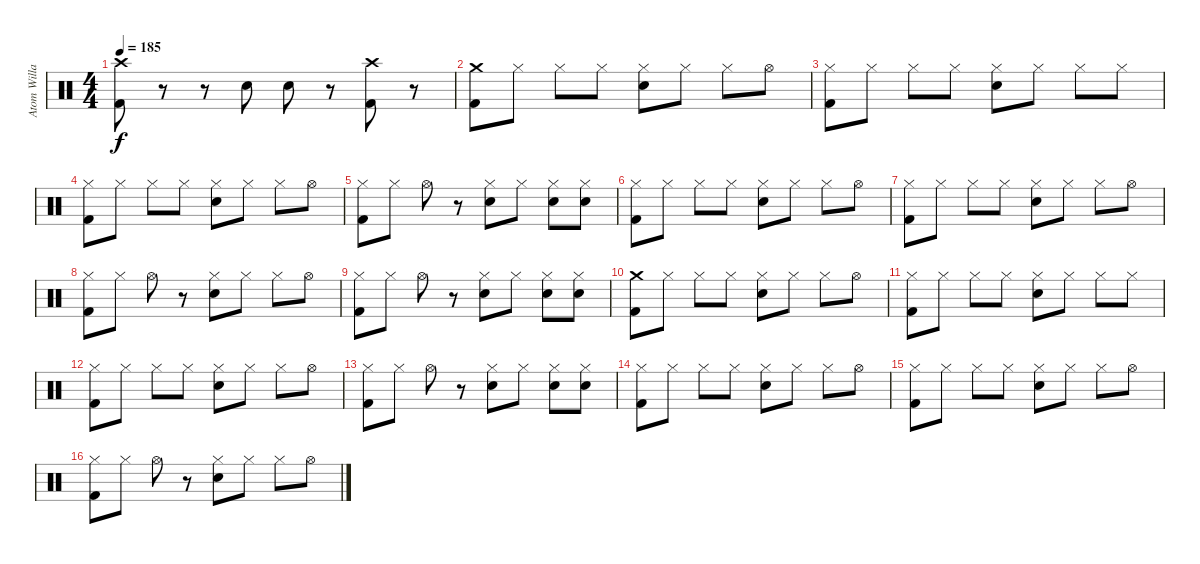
\track ("Atom Willard Drums" "Atom Willa") {instrument percussion}
\staff {score}
\articulation defaults
\ts (4 4)
\tempo 185
\clef neutral
\ks c
("Crash high (hit)" "Kick (hit) 2").8{dy f} r.8 r.8 "Electric Snare (hit)".8 "Electric Snare (hit)".8 r.8 ("Crash high (hit)" "Kick (hit) 2").8 r.8 |
("Crash medium (hit)" "Kick (hit) 2").8 "Hi-Hat (closed)".8 "Hi-Hat (closed)".8 "Hi-Hat (closed)".8 ("Hi-Hat (closed)" "Electric Snare (hit)").8 "Hi-Hat (closed)".8 "Hi-Hat (closed)".8 "Hi-Hat (open)".8 |
("Hi-Hat (closed)" "Kick (hit) 2").8 "Hi-Hat (closed)".8 "Hi-Hat (closed)".8 "Hi-Hat (closed)".8 ("Hi-Hat (closed)" "Electric Snare (hit)").8 "Hi-Hat (closed)".8 "Hi-Hat (closed)".8 "Hi-Hat (closed)".8 |
("Hi-Hat (closed)" "Kick (hit) 2").8 "Hi-Hat (closed)".8 "Hi-Hat (closed)".8 "Hi-Hat (closed)".8 ("Hi-Hat (closed)" "Electric Snare (hit)").8 "Hi-Hat (closed)".8 "Hi-Hat (closed)".8 "Hi-Hat (open)".8 |
("Hi-Hat (closed)" "Kick (hit) 2").8 "Hi-Hat (closed)".8 "Hi-Hat (open)".8 r.8 ("Hi-Hat (closed)" "Electric Snare (hit)").8 "Hi-Hat (closed)".8 ("Hi-Hat (closed)" "Electric Snare (hit)").8 ("Hi-Hat (closed)" "Electric Snare (hit)").8 |
("Hi-Hat (closed)" "Kick (hit) 2").8 "Hi-Hat (closed)".8 "Hi-Hat (closed)".8 "Hi-Hat (closed)".8 ("Hi-Hat (closed)" "Electric Snare (hit)").8 "Hi-Hat (closed)".8 "Hi-Hat (closed)".8 "Hi-Hat (open)".8 |
("Hi-Hat (closed)" "Kick (hit) 2").8 "Hi-Hat (closed)".8 "Hi-Hat (closed)".8 "Hi-Hat (closed)".8 ("Hi-Hat (closed)" "Electric Snare (hit)").8 "Hi-Hat (closed)".8 "Hi-Hat (closed)".8 "Hi-Hat (open)".8 |
("Hi-Hat (closed)" "Kick (hit) 2").8 "Hi-Hat (closed)".8 "Hi-Hat (open)".8 r.8 ("Hi-Hat (closed)" "Electric Snare (hit)").8 "Hi-Hat (closed)".8 "Hi-Hat (closed)".8 "Hi-Hat (open)".8 |
("Hi-Hat (closed)" "Kick (hit) 2").8 "Hi-Hat (closed)".8 "Hi-Hat (open)".8 r.8 ("Hi-Hat (closed)" "Electric Snare (hit)").8 "Hi-Hat (closed)".8 ("Hi-Hat (closed)" "Electric Snare (hit)").8 ("Hi-Hat (closed)" "Electric Snare (hit)").8 |
("Crash medium (hit)" "Kick (hit) 2").8 "Hi-Hat (closed)".8 "Hi-Hat (closed)".8 "Hi-Hat (closed)".8 ("Hi-Hat (closed)" "Electric Snare (hit)").8 "Hi-Hat (closed)".8 "Hi-Hat (closed)".8 "Hi-Hat (open)".8 |
("Hi-Hat (closed)" "Kick (hit) 2").8 "Hi-Hat (closed)".8 "Hi-Hat (closed)".8 "Hi-Hat (closed)".8 ("Hi-Hat (closed)" "Electric Snare (hit)").8 "Hi-Hat (closed)".8 "Hi-Hat (closed)".8 "Hi-Hat (closed)".8 |
("Hi-Hat (closed)" "Kick (hit) 2").8 "Hi-Hat (closed)".8 "Hi-Hat (closed)".8 "Hi-Hat (closed)".8 ("Hi-Hat (closed)" "Electric Snare (hit)").8 "Hi-Hat (closed)".8 "Hi-Hat (closed)".8 "Hi-Hat (open)".8 |
("Hi-Hat (closed)" "Kick (hit) 2").8 "Hi-Hat (closed)".8 "Hi-Hat (open)".8 r.8 ("Hi-Hat (closed)" "Electric Snare (hit)").8 "Hi-Hat (closed)".8 ("Hi-Hat (closed)" "Electric Snare (hit)").8 ("Hi-Hat (closed)" "Electric Snare (hit)").8 |
("Hi-Hat (closed)" "Kick (hit) 2").8 "Hi-Hat (closed)".8 "Hi-Hat (closed)".8 "Hi-Hat (closed)".8 ("Hi-Hat (closed)" "Electric Snare (hit)").8 "Hi-Hat (closed)".8 "Hi-Hat (closed)".8 "Hi-Hat (open)".8 |
("Hi-Hat (closed)" "Kick (hit) 2").8 "Hi-Hat (closed)".8 "Hi-Hat (closed)".8 "Hi-Hat (closed)".8 ("Hi-Hat (closed)" "Electric Snare (hit)").8 "Hi-Hat (closed)".8 "Hi-Hat (closed)".8 "Hi-Hat (open)".8 |
("Hi-Hat (closed)" "Kick (hit) 2").8 "Hi-Hat (closed)".8 "Hi-Hat (open)".8 r.8 ("Hi-Hat (closed)" "Electric Snare (hit)").8 "Hi-Hat (closed)".8 "Hi-Hat (closed)".8 "Hi-Hat (open)".8
